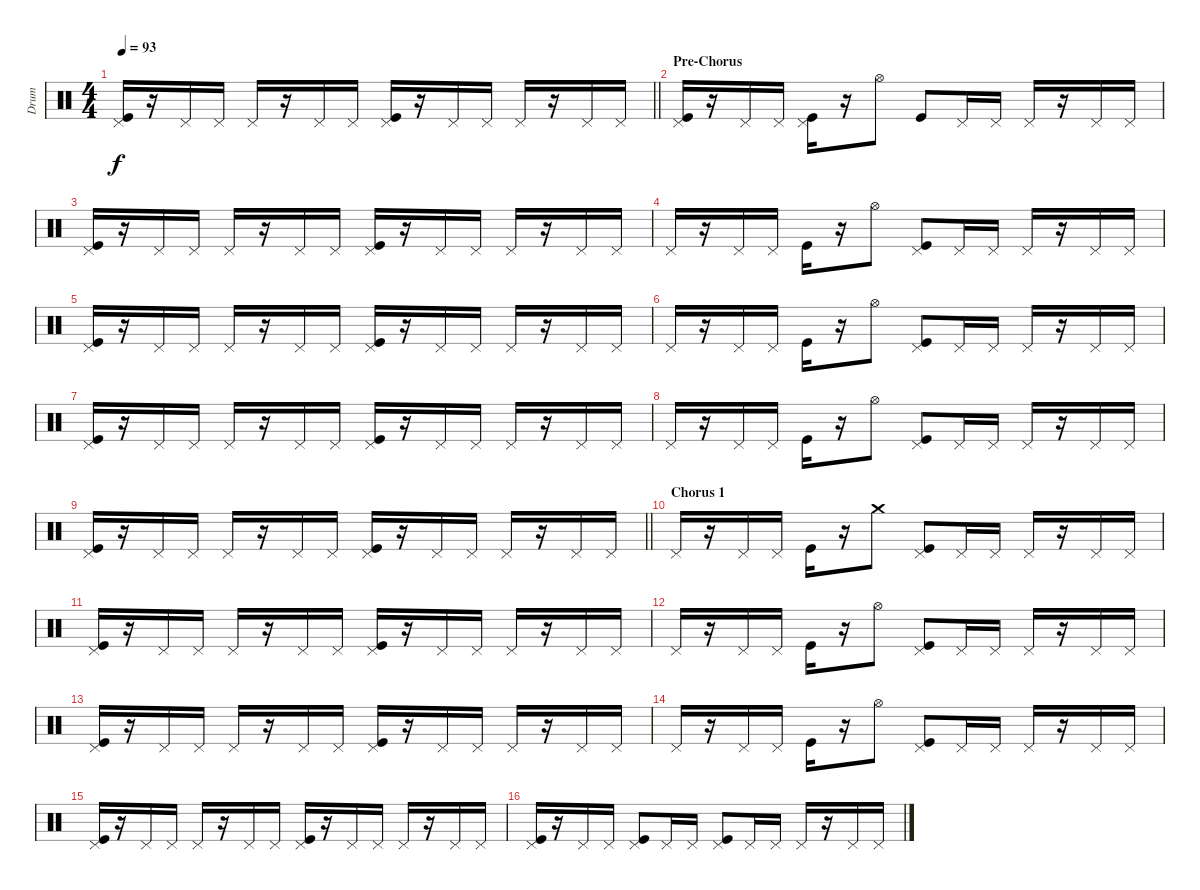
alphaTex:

\track ("Drum" "Drum") {instrument percussion}
\staff {score}
\articulation defaults
\ts (4 4)
\tempo 93
\clef neutral
\barLineRight lightlight
\ks c
("Pedal Hi-Hat (hit)" "Kick (hit)").16{dy f} r.16 "Pedal Hi-Hat (hit)".16 "Pedal Hi-Hat (hit)".16 "Pedal Hi-Hat (hit)".16 r.16 "Pedal Hi-Hat (hit)".16 "Pedal Hi-Hat (hit)".16 ("Pedal Hi-Hat (hit)" "Kick (hit)").16 r.16 "Pedal Hi-Hat (hit)".16 "Pedal Hi-Hat (hit)".16 "Pedal Hi-Hat (hit)".16 r.16 "Pedal Hi-Hat (hit)".16 "Pedal Hi-Hat (hit)".16 |
\section ("" "Pre-Chorus")
("Pedal Hi-Hat (hit)" "Kick (hit)").16 r.16 "Pedal Hi-Hat (hit)".16 "Pedal Hi-Hat (hit)".16 ("Pedal Hi-Hat (hit)" "Kick (hit)").16 r.16 "Hi-Hat (open)".8 "Kick (hit)".8 "Pedal Hi-Hat (hit)".16 "Pedal Hi-Hat (hit)".16 "Pedal Hi-Hat (hit)".16 r.16 "Pedal Hi-Hat (hit)".16 "Pedal Hi-Hat (hit)".16 |
("Pedal Hi-Hat (hit)" "Kick (hit)").16 r.16 "Pedal Hi-Hat (hit)".16 "Pedal Hi-Hat (hit)".16 "Pedal Hi-Hat (hit)".16 r.16 "Pedal Hi-Hat (hit)".16 "Pedal Hi-Hat (hit)".16 ("Pedal Hi-Hat (hit)" "Kick (hit)").16 r.16 "Pedal Hi-Hat (hit)".16 "Pedal Hi-Hat (hit)".16 "Pedal Hi-Hat (hit)".16 r.16 "Pedal Hi-Hat (hit)".16 "Pedal Hi-Hat (hit)".16 |
"Pedal Hi-Hat (hit)".16 r.16 "Pedal Hi-Hat (hit)".16 "Pedal Hi-Hat (hit)".16 "Kick (hit)".16 r.16 "Hi-Hat (open)".8 ("Pedal Hi-Hat (hit)" "Kick (hit)").8 "Pedal Hi-Hat (hit)".16 "Pedal Hi-Hat (hit)".16 "Pedal Hi-Hat (hit)".16 r.16 "Pedal Hi-Hat (hit)".16 "Pedal Hi-Hat (hit)".16 |
("Pedal Hi-Hat (hit)" "Kick (hit)").16 r.16 "Pedal Hi-Hat (hit)".16 "Pedal Hi-Hat (hit)".16 "Pedal Hi-Hat (hit)".16 r.16 "Pedal Hi-Hat (hit)".16 "Pedal Hi-Hat (hit)".16 ("Pedal Hi-Hat (hit)" "Kick (hit)").16 r.16 "Pedal Hi-Hat (hit)".16 "Pedal Hi-Hat (hit)".16 "Pedal Hi-Hat (hit)".16 r.16 "Pedal Hi-Hat (hit)".16 "Pedal Hi-Hat (hit)".16 |
"Pedal Hi-Hat (hit)".16 r.16 "Pedal Hi-Hat (hit)".16 "Pedal Hi-Hat (hit)".16 "Kick (hit)".16 r.16 "Hi-Hat (open)".8 ("Pedal Hi-Hat (hit)" "Kick (hit)").8 "Pedal Hi-Hat (hit)".16 "Pedal Hi-Hat (hit)".16 "Pedal Hi-Hat (hit)".16 r.16 "Pedal Hi-Hat (hit)".16 "Pedal Hi-Hat (hit)".16 |
("Pedal Hi-Hat (hit)" "Kick (hit)").16 r.16 "Pedal Hi-Hat (hit)".16 "Pedal Hi-Hat (hit)".16 "Pedal Hi-Hat (hit)".16 r.16 "Pedal Hi-Hat (hit)".16 "Pedal Hi-Hat (hit)".16 ("Pedal Hi-Hat (hit)" "Kick (hit)").16 r.16 "Pedal Hi-Hat (hit)".16 "Pedal Hi-Hat (hit)".16 "Pedal Hi-Hat (hit)".16 r.16 "Pedal Hi-Hat (hit)".16 "Pedal Hi-Hat (hit)".16 |
"Pedal Hi-Hat (hit)".16 r.16 "Pedal Hi-Hat (hit)".16 "Pedal Hi-Hat (hit)".16 "Kick (hit)".16 r.16 "Hi-Hat (open)".8 ("Pedal Hi-Hat (hit)" "Kick (hit)").8 "Pedal Hi-Hat (hit)".16 "Pedal Hi-Hat (hit)".16 "Pedal Hi-Hat (hit)".16 r.16 "Pedal Hi-Hat (hit)".16 "Pedal Hi-Hat (hit)".16 |
\barLineRight lightlight
("Pedal Hi-Hat (hit)" "Kick (hit)").16 r.16 "Pedal Hi-Hat (hit)".16 "Pedal Hi-Hat (hit)".16 "Pedal Hi-Hat (hit)".16 r.16 "Pedal Hi-Hat (hit)".16 "Pedal Hi-Hat (hit)".16 ("Pedal Hi-Hat (hit)" "Kick (hit)").16 r.16 "Pedal Hi-Hat (hit)".16 "Pedal Hi-Hat (hit)".16 "Pedal Hi-Hat (hit)".16 r.16 "Pedal Hi-Hat (hit)".16 "Pedal Hi-Hat (hit)".16 |
\section ("" "Chorus 1")
"Pedal Hi-Hat (hit)".16 r.16 "Pedal Hi-Hat (hit)".16 "Pedal Hi-Hat (hit)".16 "Kick (hit)".16 r.16 "Crash medium (hit)".8 ("Pedal Hi-Hat (hit)" "Kick (hit)").8 "Pedal Hi-Hat (hit)".16 "Pedal Hi-Hat (hit)".16 "Pedal Hi-Hat (hit)".16 r.16 "Pedal Hi-Hat (hit)".16 "Pedal Hi-Hat (hit)".16 |
("Pedal Hi-Hat (hit)" "Kick (hit)").16 r.16 "Pedal Hi-Hat (hit)".16 "Pedal Hi-Hat (hit)".16 "Pedal Hi-Hat (hit)".16 r.16 "Pedal Hi-Hat (hit)".16 "Pedal Hi-Hat (hit)".16 ("Pedal Hi-Hat (hit)" "Kick (hit)").16 r.16 "Pedal Hi-Hat (hit)".16 "Pedal Hi-Hat (hit)".16 "Pedal Hi-Hat (hit)".16 r.16 "Pedal Hi-Hat (hit)".16 "Pedal Hi-Hat (hit)".16 |
"Pedal Hi-Hat (hit)".16 r.16 "Pedal Hi-Hat (hit)".16 "Pedal Hi-Hat (hit)".16 "Kick (hit)".16 r.16 "Hi-Hat (open)".8 ("Pedal Hi-Hat (hit)" "Kick (hit)").8 "Pedal Hi-Hat (hit)".16 "Pedal Hi-Hat (hit)".16 "Pedal Hi-Hat (hit)".16 r.16 "Pedal Hi-Hat (hit)".16 "Pedal Hi-Hat (hit)".16 |
("Pedal Hi-Hat (hit)" "Kick (hit)").16 r.16 "Pedal Hi-Hat (hit)".16 "Pedal Hi-Hat (hit)".16 "Pedal Hi-Hat (hit)".16 r.16 "Pedal Hi-Hat (hit)".16 "Pedal Hi-Hat (hit)".16 ("Pedal Hi-Hat (hit)" "Kick (hit)").16 r.16 "Pedal Hi-Hat (hit)".16 "Pedal Hi-Hat (hit)".16 "Pedal Hi-Hat (hit)".16 r.16 "Pedal Hi-Hat (hit)".16 "Pedal Hi-Hat (hit)".16 |
"Pedal Hi-Hat (hit)".16 r.16 "Pedal Hi-Hat (hit)".16 "Pedal Hi-Hat (hit)".16 "Kick (hit)".16 r.16 "Hi-Hat (open)".8 ("Pedal Hi-Hat (hit)" "Kick (hit)").8 "Pedal Hi-Hat (hit)".16 "Pedal Hi-Hat (hit)".16 "Pedal Hi-Hat (hit)".16 r.16 "Pedal Hi-Hat (hit)".16 "Pedal Hi-Hat (hit)".16 |
("Pedal Hi-Hat (hit)" "Kick (hit)").16 r.16 "Pedal Hi-Hat (hit)".16 "Pedal Hi-Hat (hit)".16 "Pedal Hi-Hat (hit)".16 r.16 "Pedal Hi-Hat (hit)".16 "Pedal Hi-Hat (hit)".16 ("Pedal Hi-Hat (hit)" "Kick (hit)").16 r.16 "Pedal Hi-Hat (hit)".16 "Pedal Hi-Hat (hit)".16 "Pedal Hi-Hat (hit)".16 r.16 "Pedal Hi-Hat (hit)".16 "Pedal Hi-Hat (hit)".16 |
("Pedal Hi-Hat (hit)" "Kick (hit)").16 r.16 "Pedal Hi-Hat (hit)".16 "Pedal Hi-Hat (hit)".16 ("Pedal Hi-Hat (hit)" "Kick (hit)").8 "Pedal Hi-Hat (hit)".16 "Pedal Hi-Hat (hit)".16 ("Pedal Hi-Hat (hit)" "Kick (hit)").8 "Pedal Hi-Hat (hit)".16 "Pedal Hi-Hat (hit)".16 "Pedal Hi-Hat (hit)".16 r.16 "Pedal Hi-Hat (hit)".16 "Pedal Hi-Hat (hit)".16
